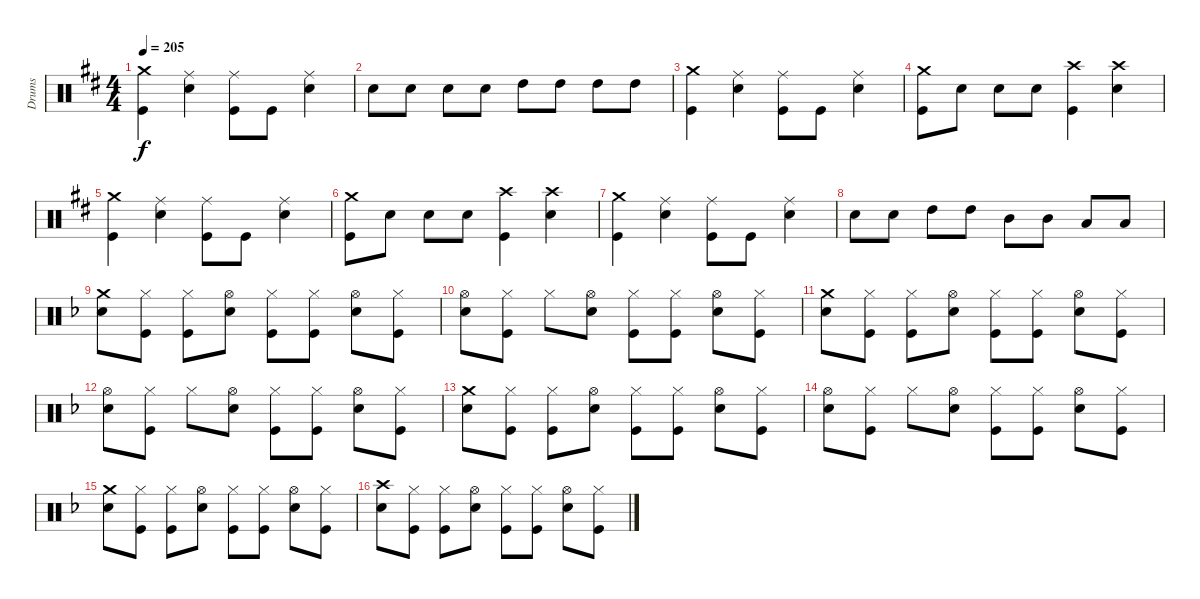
\track ("Drums" "Drums") {instrument percussion}
\staff {score}
\articulation defaults
\ts (4 4)
\tempo 205
\clef neutral
\ks d
("Crash medium (hit)" "Kick (hit)").4{dy f} ("Ride (middle)" "Electric Snare (hit)").4 ("Ride (middle)" "Kick (hit)").8 "Kick (hit)".8 ("Ride (middle)" "Electric Snare (hit)").4 |
"Electric Snare (hit)".8 "Electric Snare (hit)".8 "Electric Snare (hit)".8 "Electric Snare (hit)".8 "High Tom (hit)".8 "High Tom (hit)".8 "High Tom (hit)".8 "High Tom (hit)".8 |
("Crash medium (hit)" "Kick (hit)").4 ("Ride (middle)" "Electric Snare (hit)").4 ("Ride (middle)" "Kick (hit)").8 "Kick (hit)".8 ("Ride (middle)" "Electric Snare (hit)").4 |
("Crash medium (hit)" "Kick (hit)").8 "Electric Snare (hit)".8 "Electric Snare (hit)".8 "Electric Snare (hit)".8 ("Crash high (hit)" "Kick (hit)").4 ("Electric Snare (hit)" "Crash high (hit)").4 |
("Crash medium (hit)" "Kick (hit)").4 ("Electric Snare (hit)" "Ride (middle)").4 ("Kick (hit)" "Ride (middle)").8 "Kick (hit)".8 ("Electric Snare (hit)" "Ride (middle)").4 |
("Crash medium (hit)" "Kick (hit)").8 "Electric Snare (hit)".8 "Electric Snare (hit)".8 "Electric Snare (hit)".8 ("Crash high (hit)" "Kick (hit)").4 ("Electric Snare (hit)" "Crash high (hit)").4 |
("Crash medium (hit)" "Kick (hit)").4 ("Electric Snare (hit)" "Ride (middle)").4 ("Kick (hit)" "Ride (middle)").8 "Kick (hit)".8 ("Electric Snare (hit)" "Ride (middle)").4 |
"Electric Snare (hit)".8 "Electric Snare (hit)".8 "High Tom (hit)".8 "High Tom (hit)".8 "Mid Tom (hit)".8 "Mid Tom (hit)".8 "Low Tom (hit)".8 "Low Tom (hit)".8 |
\ks f
("Crash medium (hit)" "Electric Snare (hit)").8 ("Hi-Hat (closed)" "Kick (hit)").8 ("Hi-Hat (closed)" "Kick (hit)").8 ("Hi-Hat (open)" "Electric Snare (hit)").8 ("Hi-Hat (closed)" "Kick (hit)").8 ("Hi-Hat (closed)" "Kick (hit)").8 ("Hi-Hat (open)" "Electric Snare (hit)").8 ("Hi-Hat (closed)" "Kick (hit)").8 |
("Hi-Hat (open)" "Electric Snare (hit)").8 ("Hi-Hat (closed)" "Kick (hit)").8 "Hi-Hat (closed)".8 ("Hi-Hat (open)" "Electric Snare (hit)").8 ("Hi-Hat (closed)" "Kick (hit)").8 ("Hi-Hat (closed)" "Kick (hit)").8 ("Hi-Hat (open)" "Electric Snare (hit)").8 ("Hi-Hat (closed)" "Kick (hit)").8 |
("Crash medium (hit)" "Electric Snare (hit)").8 ("Hi-Hat (closed)" "Kick (hit)").8 ("Hi-Hat (closed)" "Kick (hit)").8 ("Hi-Hat (open)" "Electric Snare (hit)").8 ("Hi-Hat (closed)" "Kick (hit)").8 ("Hi-Hat (closed)" "Kick (hit)").8 ("Hi-Hat (open)" "Electric Snare (hit)").8 ("Hi-Hat (closed)" "Kick (hit)").8 |
("Hi-Hat (open)" "Electric Snare (hit)").8 ("Hi-Hat (closed)" "Kick (hit)").8 "Hi-Hat (closed)".8 ("Hi-Hat (open)" "Electric Snare (hit)").8 ("Hi-Hat (closed)" "Kick (hit)").8 ("Hi-Hat (closed)" "Kick (hit)").8 ("Hi-Hat (open)" "Electric Snare (hit)").8 ("Hi-Hat (closed)" "Kick (hit)").8 |
("Crash medium (hit)" "Electric Snare (hit)").8 ("Hi-Hat (closed)" "Kick (hit)").8 ("Hi-Hat (closed)" "Kick (hit)").8 ("Hi-Hat (open)" "Electric Snare (hit)").8 ("Hi-Hat (closed)" "Kick (hit)").8 ("Hi-Hat (closed)" "Kick (hit)").8 ("Hi-Hat (open)" "Electric Snare (hit)").8 ("Hi-Hat (closed)" "Kick (hit)").8 |
("Hi-Hat (open)" "Electric Snare (hit)").8 ("Hi-Hat (closed)" "Kick (hit)").8 "Hi-Hat (closed)".8 ("Hi-Hat (open)" "Electric Snare (hit)").8 ("Hi-Hat (closed)" "Kick (hit)").8 ("Hi-Hat (closed)" "Kick (hit)").8 ("Hi-Hat (open)" "Electric Snare (hit)").8 ("Hi-Hat (closed)" "Kick (hit)").8 |
("Crash medium (hit)" "Electric Snare (hit)").8 ("Hi-Hat (closed)" "Kick (hit)").8 ("Hi-Hat (closed)" "Kick (hit)").8 ("Hi-Hat (open)" "Electric Snare (hit)").8 ("Hi-Hat (closed)" "Kick (hit)").8 ("Hi-Hat (closed)" "Kick (hit)").8 ("Hi-Hat (open)" "Electric Snare (hit)").8 ("Hi-Hat (closed)" "Kick (hit)").8 |
("Crash high (hit)" "Electric Snare (hit)").8 ("Hi-Hat (closed)" "Kick (hit)").8 ("Hi-Hat (closed)" "Kick (hit)").8 ("Hi-Hat (open)" "Electric Snare (hit)").8 ("Hi-Hat (closed)" "Kick (hit)").8 ("Hi-Hat (closed)" "Kick (hit)").8 ("Hi-Hat (open)" "Electric Snare (hit)").8 ("Hi-Hat (closed)" "Kick (hit)").8
